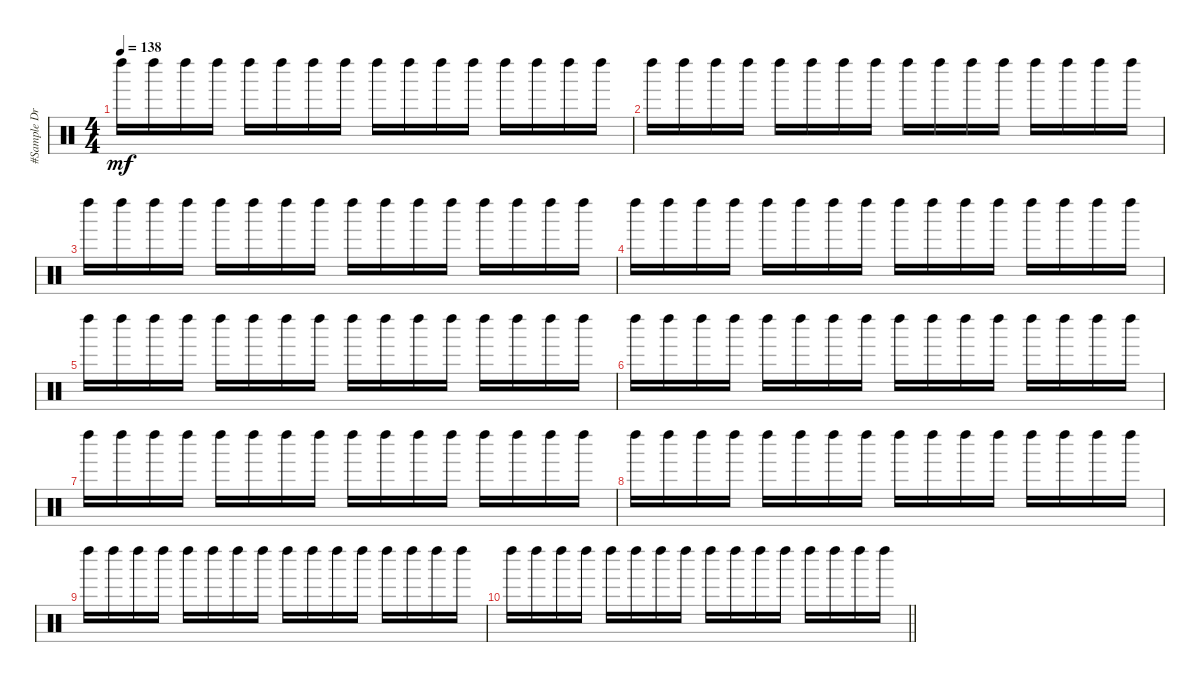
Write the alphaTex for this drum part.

\track ("#Sample Drums" "#Sample Dr") {instrument percussion}
\staff {score}
\articulation defaults
\ts (4 4)
\tempo 138
\clef neutral
\ks c "Left Maraca (hit)".16{dy mf} "Left Maraca (hit)".16 "Left Maraca (hit)".16 "Left Maraca (hit)".16 "Left Maraca (hit)".16 "Left Maraca (hit)".16 "Left Maraca (hit)".16 "Left Maraca (hit)".16 "Left Maraca (hit)".16 "Left Maraca (hit)".16 "Left Maraca (hit)".16 "Left Maraca (hit)".16 "Left Maraca (hit)".16 "Left Maraca (hit)".16 "Left Maraca (hit)".16 "Left Maraca (hit)".16
|
"Left Maraca (hit)".16 "Left Maraca (hit)".16 "Left Maraca (hit)".16 "Left Maraca (hit)".16 "Left Maraca (hit)".16 "Left Maraca (hit)".16 "Left Maraca (hit)".16 "Left Maraca (hit)".16 "Left Maraca (hit)".16 "Left Maraca (hit)".16 "Left Maraca (hit)".16 "Left Maraca (hit)".16 "Left Maraca (hit)".16 "Left Maraca (hit)".16 "Left Maraca (hit)".16 "Left Maraca (hit)".16 |
"Left Maraca (hit)".16 "Left Maraca (hit)".16 "Left Maraca (hit)".16 "Left Maraca (hit)".16 "Left Maraca (hit)".16 "Left Maraca (hit)".16 "Left Maraca (hit)".16 "Left Maraca (hit)".16 "Left Maraca (hit)".16 "Left Maraca (hit)".16 "Left Maraca (hit)".16 "Left Maraca (hit)".16 "Left Maraca (hit)".16 "Left Maraca (hit)".16 "Left Maraca (hit)".16 "Left Maraca (hit)".16 |
"Left Maraca (hit)".16 "Left Maraca (hit)".16 "Left Maraca (hit)".16 "Left Maraca (hit)".16 "Left Maraca (hit)".16 "Left Maraca (hit)".16 "Left Maraca (hit)".16 "Left Maraca (hit)".16 "Left Maraca (hit)".16 "Left Maraca (hit)".16 "Left Maraca (hit)".16 "Left Maraca (hit)".16 "Left Maraca (hit)".16 "Left Maraca (hit)".16 "Left Maraca (hit)".16 "Left Maraca (hit)".16 |
"Left Maraca (hit)".16 "Left Maraca (hit)".16 "Left Maraca (hit)".16 "Left Maraca (hit)".16 "Left Maraca (hit)".16 "Left Maraca (hit)".16 "Left Maraca (hit)".16 "Left Maraca (hit)".16 "Left Maraca (hit)".16 "Left Maraca (hit)".16 "Left Maraca (hit)".16 "Left Maraca (hit)".16 "Left Maraca (hit)".16 "Left Maraca (hit)".16 "Left Maraca (hit)".16 "Left Maraca (hit)".16 |
"Left Maraca (hit)".16 "Left Maraca (hit)".16 "Left Maraca (hit)".16 "Left Maraca (hit)".16 "Left Maraca (hit)".16 "Left Maraca (hit)".16 "Left Maraca (hit)".16 "Left Maraca (hit)".16 "Left Maraca (hit)".16 "Left Maraca (hit)".16 "Left Maraca (hit)".16 "Left Maraca (hit)".16 "Left Maraca (hit)".16 "Left Maraca (hit)".16 "Left Maraca (hit)".16 "Left Maraca (hit)".16 |
"Left Maraca (hit)".16 "Left Maraca (hit)".16 "Left Maraca (hit)".16 "Left Maraca (hit)".16 "Left Maraca (hit)".16 "Left Maraca (hit)".16 "Left Maraca (hit)".16 "Left Maraca (hit)".16 "Left Maraca (hit)".16 "Left Maraca (hit)".16 "Left Maraca (hit)".16 "Left Maraca (hit)".16 "Left Maraca (hit)".16 "Left Maraca (hit)".16 "Left Maraca (hit)".16 "Left Maraca (hit)".16 |
"Left Maraca (hit)".16 "Left Maraca (hit)".16 "Left Maraca (hit)".16 "Left Maraca (hit)".16 "Left Maraca (hit)".16 "Left Maraca (hit)".16 "Left Maraca (hit)".16 "Left Maraca (hit)".16 "Left Maraca (hit)".16 "Left Maraca (hit)".16 "Left Maraca (hit)".16 "Left Maraca (hit)".16 "Left Maraca (hit)".16 "Left Maraca (hit)".16 "Left Maraca (hit)".16 "Left Maraca (hit)".16 |
"Left Maraca (hit)".16 "Left Maraca (hit)".16 "Left Maraca (hit)".16 "Left Maraca (hit)".16 "Left Maraca (hit)".16 "Left Maraca (hit)".16 "Left Maraca (hit)".16 "Left Maraca (hit)".16 "Left Maraca (hit)".16 "Left Maraca (hit)".16 "Left Maraca (hit)".16 "Left Maraca (hit)".16 "Left Maraca (hit)".16 "Left Maraca (hit)".16 "Left Maraca (hit)".16 "Left Maraca (hit)".16 |
\barLineRight lightlight "Left Maraca (hit)".16 "Left Maraca (hit)".16 "Left Maraca (hit)".16 "Left Maraca (hit)".16 "Left Maraca (hit)".16 "Left Maraca (hit)".16 "Left Maraca (hit)".16 "Left Maraca (hit)".16 "Left Maraca (hit)".16 "Left Maraca (hit)".16 "Left Maraca (hit)".16 "Left Maraca (hit)".16 "Left Maraca (hit)".16 "Left Maraca (hit)".16 "Left Maraca (hit)".16 "Left Maraca (hit)".16
